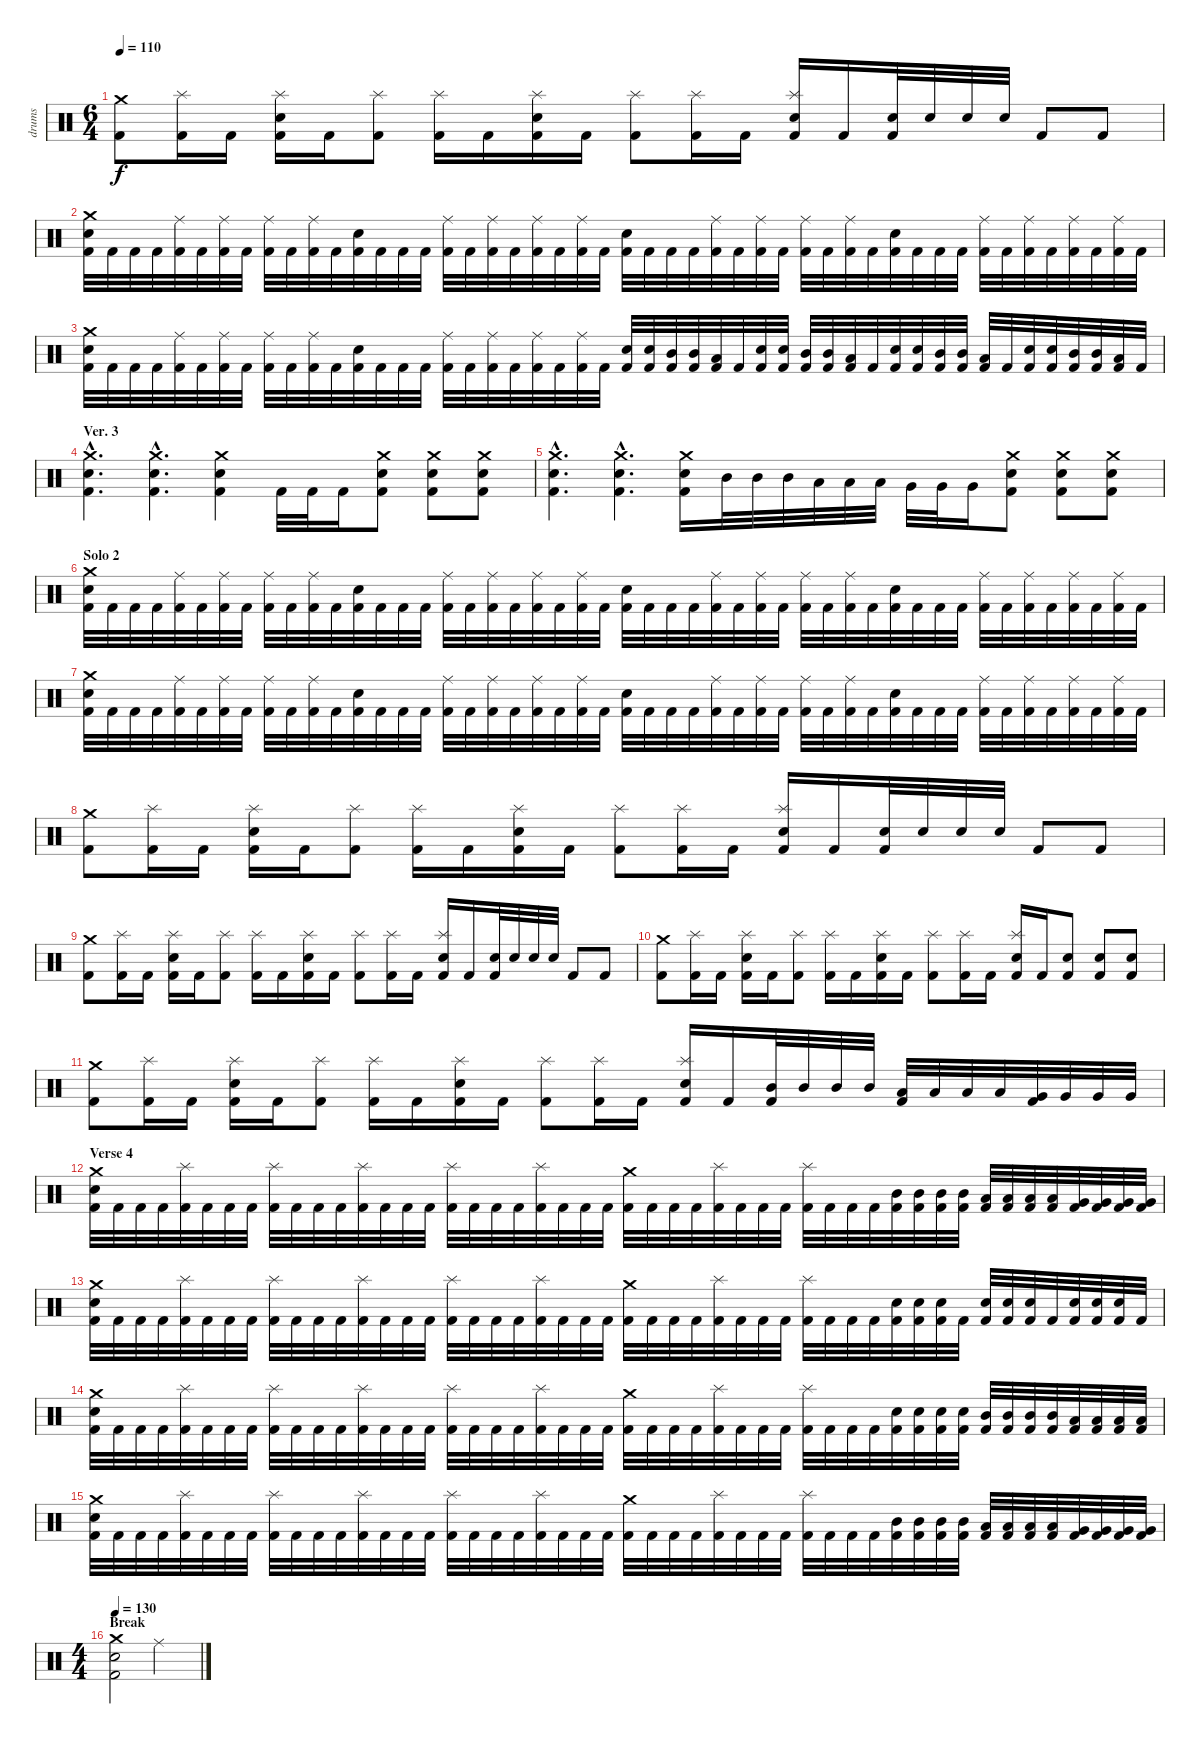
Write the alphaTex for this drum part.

\track ("drums" "drums") {instrument percussion}
\staff {score}
\articulation defaults
\ts (6 4)
\tempo 110
\clef neutral
\ks c
("Crash medium (hit)" "Kick (hit) 2").8{dy f} ("Splash (hit)" "Kick (hit) 2").16 "Kick (hit) 2".16 ("Splash (hit)" "Electric Snare (hit)" "Kick (hit) 2").16 "Kick (hit) 2".16 ("Splash (hit)" "Kick (hit) 2").8 ("Splash (hit)" "Kick (hit) 2").16 "Kick (hit) 2".16 ("Splash (hit)" "Electric Snare (hit)" "Kick (hit) 2").16 "Kick (hit) 2".16 ("Splash (hit)" "Kick (hit) 2").8 ("Splash (hit)" "Kick (hit) 2").16 "Kick (hit) 2".16 ("Splash (hit)" "Electric Snare (hit)" "Kick (hit) 2").16 "Kick (hit) 2".16 ("Electric Snare (hit)" "Kick (hit) 2").32 "Electric Snare (hit)".32 "Electric Snare (hit)".32 "Electric Snare (hit)".32 "Kick (hit) 2".8 "Kick (hit) 2".8 |
("Crash medium (hit)" "Electric Snare (hit)" "Kick (hit) 2").32 "Kick (hit) 2".32 "Kick (hit) 2".32 "Kick (hit) 2".32 ("Ride (middle)" "Kick (hit) 2").32 "Kick (hit) 2".32 ("Ride (middle)" "Kick (hit) 2").32 "Kick (hit) 2".32 ("Ride (middle)" "Kick (hit) 2").32 "Kick (hit) 2".32 ("Ride (middle)" "Kick (hit) 2").32 "Kick (hit) 2".32 ("Electric Snare (hit)" "Kick (hit) 2").32 "Kick (hit) 2".32 "Kick (hit) 2".32 "Kick (hit) 2".32 ("Ride (middle)" "Kick (hit) 2").32 "Kick (hit) 2".32 ("Ride (middle)" "Kick (hit) 2").32 "Kick (hit) 2".32 ("Ride (middle)" "Kick (hit) 2").32 "Kick (hit) 2".32 ("Ride (middle)" "Kick (hit) 2").32 "Kick (hit) 2".32 ("Electric Snare (hit)" "Kick (hit) 2").32 "Kick (hit) 2".32 "Kick (hit) 2".32 "Kick (hit) 2".32 ("Ride (middle)" "Kick (hit) 2").32 "Kick (hit) 2".32 ("Ride (middle)" "Kick (hit) 2").32 "Kick (hit) 2".32 ("Ride (middle)" "Kick (hit) 2").32 "Kick (hit) 2".32 ("Ride (middle)" "Kick (hit) 2").32 "Kick (hit) 2".32 ("Electric Snare (hit)" "Kick (hit) 2").32 "Kick (hit) 2".32 "Kick (hit) 2".32 "Kick (hit) 2".32 ("Ride (middle)" "Kick (hit) 2").32 "Kick (hit) 2".32 ("Ride (middle)" "Kick (hit) 2").32 "Kick (hit) 2".32 ("Ride (middle)" "Kick (hit) 2").32 "Kick (hit) 2".32 ("Ride (middle)" "Kick (hit) 2").32 "Kick (hit) 2".32 |
("Crash medium (hit)" "Electric Snare (hit)" "Kick (hit) 2").32 "Kick (hit) 2".32 "Kick (hit) 2".32 "Kick (hit) 2".32 ("Ride (middle)" "Kick (hit) 2").32 "Kick (hit) 2".32 ("Ride (middle)" "Kick (hit) 2").32 "Kick (hit) 2".32 ("Ride (middle)" "Kick (hit) 2").32 "Kick (hit) 2".32 ("Ride (middle)" "Kick (hit) 2").32 "Kick (hit) 2".32 ("Electric Snare (hit)" "Kick (hit) 2").32 "Kick (hit) 2".32 "Kick (hit) 2".32 "Kick (hit) 2".32 ("Ride (middle)" "Kick (hit) 2").32 "Kick (hit) 2".32 ("Ride (middle)" "Kick (hit) 2").32 "Kick (hit) 2".32 ("Ride (middle)" "Kick (hit) 2").32 "Kick (hit) 2".32 ("Ride (middle)" "Kick (hit) 2").32 "Kick (hit) 2".32 ("Electric Snare (hit)" "Kick (hit) 2").32 ("Electric Snare (hit)" "Kick (hit) 2").32 ("Mid Tom (hit)" "Kick (hit) 2").32 ("Mid Tom (hit)" "Kick (hit) 2").32 ("Low Tom (hit)" "Kick (hit) 2").32 "Kick (hit) 2".32 ("Electric Snare (hit)" "Kick (hit) 2").32 ("Electric Snare (hit)" "Kick (hit) 2").32 ("Mid Tom (hit)" "Kick (hit) 2").32 ("Mid Tom (hit)" "Kick (hit) 2").32 ("Low Tom (hit)" "Kick (hit) 2").32 "Kick (hit) 2".32 ("Electric Snare (hit)" "Kick (hit) 2").32 ("Electric Snare (hit)" "Kick (hit) 2").32 ("Mid Tom (hit)" "Kick (hit) 2").32 ("Mid Tom (hit)" "Kick (hit) 2").32 ("Low Tom (hit)" "Kick (hit) 2").32 "Kick (hit) 2".32 ("Electric Snare (hit)" "Kick (hit) 2").32 ("Electric Snare (hit)" "Kick (hit) 2").32 ("Mid Tom (hit)" "Kick (hit) 2").32 ("Mid Tom (hit)" "Kick (hit) 2").32 ("Low Tom (hit)" "Kick (hit) 2").32 "Kick (hit) 2".32 |
\section ("" "Ver. 3")
("Crash medium (hit)"{hac} "Electric Snare (hit)"{hac} "Kick (hit) 2"{hac}).4{d} ("Crash medium (hit)"{hac} "Electric Snare (hit)"{hac} "Kick (hit) 2"{hac}).4{d} ("Crash medium (hit)" "Electric Snare (hit)" "Kick (hit) 2").4 "Kick (hit) 2".32 "Kick (hit) 2".32 "Kick (hit) 2".16 ("Crash medium (hit)" "Electric Snare (hit)" "Kick (hit) 2").8 ("Crash medium (hit)" "Electric Snare (hit)" "Kick (hit) 2").8 ("Crash medium (hit)" "Electric Snare (hit)" "Kick (hit) 2").8 |
("Crash medium (hit)"{hac} "Electric Snare (hit)"{hac} "Kick (hit) 2"{hac}).4{d} ("Crash medium (hit)"{hac} "Electric Snare (hit)"{hac} "Kick (hit) 2"{hac}).4{d} ("Crash medium (hit)" "Electric Snare (hit)" "Kick (hit) 2").16 "Mid Tom (hit)".32 "Mid Tom (hit)".32 "Mid Tom (hit)".32 "Low Tom (hit)".32 "Low Tom (hit)".32 "Low Tom (hit)".32 "Very Low Tom (hit)".32 "Very Low Tom (hit)".32 "Very Low Tom (hit)".16 ("Crash medium (hit)" "Electric Snare (hit)" "Kick (hit) 2").8 ("Crash medium (hit)" "Electric Snare (hit)" "Kick (hit) 2").8 ("Crash medium (hit)" "Electric Snare (hit)" "Kick (hit) 2").8 |
\section ("" "Solo 2")
("Crash medium (hit)" "Electric Snare (hit)" "Kick (hit) 2").32 "Kick (hit) 2".32 "Kick (hit) 2".32 "Kick (hit) 2".32 ("Ride (middle)" "Kick (hit) 2").32 "Kick (hit) 2".32 ("Ride (middle)" "Kick (hit) 2").32 "Kick (hit) 2".32 ("Ride (middle)" "Kick (hit) 2").32 "Kick (hit) 2".32 ("Ride (middle)" "Kick (hit) 2").32 "Kick (hit) 2".32 ("Electric Snare (hit)" "Kick (hit) 2").32 "Kick (hit) 2".32 "Kick (hit) 2".32 "Kick (hit) 2".32 ("Ride (middle)" "Kick (hit) 2").32 "Kick (hit) 2".32 ("Ride (middle)" "Kick (hit) 2").32 "Kick (hit) 2".32 ("Ride (middle)" "Kick (hit) 2").32 "Kick (hit) 2".32 ("Ride (middle)" "Kick (hit) 2").32 "Kick (hit) 2".32 ("Electric Snare (hit)" "Kick (hit) 2").32 "Kick (hit) 2".32 "Kick (hit) 2".32 "Kick (hit) 2".32 ("Ride (middle)" "Kick (hit) 2").32 "Kick (hit) 2".32 ("Ride (middle)" "Kick (hit) 2").32 "Kick (hit) 2".32 ("Ride (middle)" "Kick (hit) 2").32 "Kick (hit) 2".32 ("Ride (middle)" "Kick (hit) 2").32 "Kick (hit) 2".32 ("Electric Snare (hit)" "Kick (hit) 2").32 "Kick (hit) 2".32 "Kick (hit) 2".32 "Kick (hit) 2".32 ("Ride (middle)" "Kick (hit) 2").32 "Kick (hit) 2".32 ("Ride (middle)" "Kick (hit) 2").32 "Kick (hit) 2".32 ("Ride (middle)" "Kick (hit) 2").32 "Kick (hit) 2".32 ("Ride (middle)" "Kick (hit) 2").32 "Kick (hit) 2".32 |
("Crash medium (hit)" "Electric Snare (hit)" "Kick (hit) 2").32 "Kick (hit) 2".32 "Kick (hit) 2".32 "Kick (hit) 2".32 ("Ride (middle)" "Kick (hit) 2").32 "Kick (hit) 2".32 ("Ride (middle)" "Kick (hit) 2").32 "Kick (hit) 2".32 ("Ride (middle)" "Kick (hit) 2").32 "Kick (hit) 2".32 ("Ride (middle)" "Kick (hit) 2").32 "Kick (hit) 2".32 ("Electric Snare (hit)" "Kick (hit) 2").32 "Kick (hit) 2".32 "Kick (hit) 2".32 "Kick (hit) 2".32 ("Ride (middle)" "Kick (hit) 2").32 "Kick (hit) 2".32 ("Ride (middle)" "Kick (hit) 2").32 "Kick (hit) 2".32 ("Ride (middle)" "Kick (hit) 2").32 "Kick (hit) 2".32 ("Ride (middle)" "Kick (hit) 2").32 "Kick (hit) 2".32 ("Electric Snare (hit)" "Kick (hit) 2").32 "Kick (hit) 2".32 "Kick (hit) 2".32 "Kick (hit) 2".32 ("Ride (middle)" "Kick (hit) 2").32 "Kick (hit) 2".32 ("Ride (middle)" "Kick (hit) 2").32 "Kick (hit) 2".32 ("Ride (middle)" "Kick (hit) 2").32 "Kick (hit) 2".32 ("Ride (middle)" "Kick (hit) 2").32 "Kick (hit) 2".32 ("Electric Snare (hit)" "Kick (hit) 2").32 "Kick (hit) 2".32 "Kick (hit) 2".32 "Kick (hit) 2".32 ("Ride (middle)" "Kick (hit) 2").32 "Kick (hit) 2".32 ("Ride (middle)" "Kick (hit) 2").32 "Kick (hit) 2".32 ("Ride (middle)" "Kick (hit) 2").32 "Kick (hit) 2".32 ("Ride (middle)" "Kick (hit) 2").32 "Kick (hit) 2".32 |
("Crash medium (hit)" "Kick (hit) 2").8 ("Splash (hit)" "Kick (hit) 2").16 "Kick (hit) 2".16 ("Splash (hit)" "Electric Snare (hit)" "Kick (hit) 2").16 "Kick (hit) 2".16 ("Splash (hit)" "Kick (hit) 2").8 ("Splash (hit)" "Kick (hit) 2").16 "Kick (hit) 2".16 ("Splash (hit)" "Electric Snare (hit)" "Kick (hit) 2").16 "Kick (hit) 2".16 ("Splash (hit)" "Kick (hit) 2").8 ("Splash (hit)" "Kick (hit) 2").16 "Kick (hit) 2".16 ("Splash (hit)" "Electric Snare (hit)" "Kick (hit) 2").16 "Kick (hit) 2".16 ("Electric Snare (hit)" "Kick (hit) 2").32 "Electric Snare (hit)".32 "Electric Snare (hit)".32 "Electric Snare (hit)".32 "Kick (hit) 2".8 "Kick (hit) 2".8 |
("Crash medium (hit)" "Kick (hit) 2").8 ("Splash (hit)" "Kick (hit) 2").16 "Kick (hit) 2".16 ("Splash (hit)" "Electric Snare (hit)" "Kick (hit) 2").16 "Kick (hit) 2".16 ("Splash (hit)" "Kick (hit) 2").8 ("Splash (hit)" "Kick (hit) 2").16 "Kick (hit) 2".16 ("Splash (hit)" "Electric Snare (hit)" "Kick (hit) 2").16 "Kick (hit) 2".16 ("Splash (hit)" "Kick (hit) 2").8 ("Splash (hit)" "Kick (hit) 2").16 "Kick (hit) 2".16 ("Splash (hit)" "Electric Snare (hit)" "Kick (hit) 2").16 "Kick (hit) 2".16 ("Electric Snare (hit)" "Kick (hit) 2").32 "Electric Snare (hit)".32 "Electric Snare (hit)".32 "Electric Snare (hit)".32 "Kick (hit) 2".8 "Kick (hit) 2".8 |
("Crash medium (hit)" "Kick (hit) 2").8 ("Splash (hit)" "Kick (hit) 2").16 "Kick (hit) 2".16 ("Splash (hit)" "Electric Snare (hit)" "Kick (hit) 2").16 "Kick (hit) 2".16 ("Splash (hit)" "Kick (hit) 2").8 ("Splash (hit)" "Kick (hit) 2").16 "Kick (hit) 2".16 ("Splash (hit)" "Electric Snare (hit)" "Kick (hit) 2").16 "Kick (hit) 2".16 ("Splash (hit)" "Kick (hit) 2").8 ("Splash (hit)" "Kick (hit) 2").16 "Kick (hit) 2".16 ("Splash (hit)" "Electric Snare (hit)" "Kick (hit) 2").16 "Kick (hit) 2".16 ("Electric Snare (hit)" "Kick (hit) 2").8 ("Electric Snare (hit)" "Kick (hit) 2").8 ("Electric Snare (hit)" "Kick (hit) 2").8 |
("Crash medium (hit)" "Kick (hit) 2").8 ("Splash (hit)" "Kick (hit) 2").16 "Kick (hit) 2".16 ("Splash (hit)" "Electric Snare (hit)" "Kick (hit) 2").16 "Kick (hit) 2".16 ("Splash (hit)" "Kick (hit) 2").8 ("Splash (hit)" "Kick (hit) 2").16 "Kick (hit) 2".16 ("Splash (hit)" "Electric Snare (hit)" "Kick (hit) 2").16 "Kick (hit) 2".16 ("Splash (hit)" "Kick (hit) 2").8 ("Splash (hit)" "Kick (hit) 2").16 "Kick (hit) 2".16 ("Splash (hit)" "Electric Snare (hit)" "Kick (hit) 2").16 "Kick (hit) 2".16 ("Mid Tom (hit)" "Kick (hit) 2").32 "Mid Tom (hit)".32 "Mid Tom (hit)".32 "Mid Tom (hit)".32 ("Low Tom (hit)" "Kick (hit) 2").32 "Low Tom (hit)".32 "Low Tom (hit)".32 "Low Tom (hit)".32 ("Very Low Tom (hit)" "Kick (hit) 2").32 "Very Low Tom (hit)".32 "Very Low Tom (hit)".32 "Very Low Tom (hit)".32 |
\section ("" "Verse 4")
("Crash medium (hit)" "Electric Snare (hit)" "Kick (hit) 2").32 "Kick (hit) 2".32 "Kick (hit) 2".32 "Kick (hit) 2".32 ("Splash (hit)" "Kick (hit) 2").32 "Kick (hit) 2".32 "Kick (hit) 2".32 "Kick (hit) 2".32 ("Splash (hit)" "Kick (hit) 2").32 "Kick (hit) 2".32 "Kick (hit) 2".32 "Kick (hit) 2".32 ("Splash (hit)" "Kick (hit) 2").32 "Kick (hit) 2".32 "Kick (hit) 2".32 "Kick (hit) 2".32 ("Splash (hit)" "Kick (hit) 2").32 "Kick (hit) 2".32 "Kick (hit) 2".32 "Kick (hit) 2".32 ("Splash (hit)" "Kick (hit) 2").32 "Kick (hit) 2".32 "Kick (hit) 2".32 "Kick (hit) 2".32 ("Crash medium (hit)" "Kick (hit) 2").32 "Kick (hit) 2".32 "Kick (hit) 2".32 "Kick (hit) 2".32 ("Splash (hit)" "Kick (hit) 2").32 "Kick (hit) 2".32 "Kick (hit) 2".32 "Kick (hit) 2".32 ("Splash (hit)" "Kick (hit) 2").32 "Kick (hit) 2".32 "Kick (hit) 2".32 "Kick (hit) 2".32 ("Mid Tom (hit)" "Kick (hit) 2").32 ("Mid Tom (hit)" "Kick (hit) 2").32 ("Mid Tom (hit)" "Kick (hit) 2").32 ("Mid Tom (hit)" "Kick (hit) 2").32 ("Low Tom (hit)" "Kick (hit) 2").32 ("Low Tom (hit)" "Kick (hit) 2").32 ("Low Tom (hit)" "Kick (hit) 2").32 ("Low Tom (hit)" "Kick (hit) 2").32 ("Very Low Tom (hit)" "Kick (hit) 2").32 ("Very Low Tom (hit)" "Kick (hit) 2").32 ("Very Low Tom (hit)" "Kick (hit) 2").32 ("Very Low Tom (hit)" "Kick (hit) 2").32 |
("Crash medium (hit)" "Electric Snare (hit)" "Kick (hit) 2").32 "Kick (hit) 2".32 "Kick (hit) 2".32 "Kick (hit) 2".32 ("Splash (hit)" "Kick (hit) 2").32 "Kick (hit) 2".32 "Kick (hit) 2".32 "Kick (hit) 2".32 ("Splash (hit)" "Kick (hit) 2").32 "Kick (hit) 2".32 "Kick (hit) 2".32 "Kick (hit) 2".32 ("Splash (hit)" "Kick (hit) 2").32 "Kick (hit) 2".32 "Kick (hit) 2".32 "Kick (hit) 2".32 ("Splash (hit)" "Kick (hit) 2").32 "Kick (hit) 2".32 "Kick (hit) 2".32 "Kick (hit) 2".32 ("Splash (hit)" "Kick (hit) 2").32 "Kick (hit) 2".32 "Kick (hit) 2".32 "Kick (hit) 2".32 ("Crash medium (hit)" "Kick (hit) 2").32 "Kick (hit) 2".32 "Kick (hit) 2".32 "Kick (hit) 2".32 ("Splash (hit)" "Kick (hit) 2").32 "Kick (hit) 2".32 "Kick (hit) 2".32 "Kick (hit) 2".32 ("Splash (hit)" "Kick (hit) 2").32 "Kick (hit) 2".32 "Kick (hit) 2".32 "Kick (hit) 2".32 ("Electric Snare (hit)" "Kick (hit) 2").32 ("Electric Snare (hit)" "Kick (hit) 2").32 ("Electric Snare (hit)" "Kick (hit) 2").32 "Kick (hit) 2".32 ("Electric Snare (hit)" "Kick (hit) 2").32 ("Electric Snare (hit)" "Kick (hit) 2").32 ("Electric Snare (hit)" "Kick (hit) 2").32 "Kick (hit) 2".32 ("Electric Snare (hit)" "Kick (hit) 2").32 ("Electric Snare (hit)" "Kick (hit) 2").32 ("Electric Snare (hit)" "Kick (hit) 2").32 "Kick (hit) 2".32 |
("Crash medium (hit)" "Electric Snare (hit)" "Kick (hit) 2").32 "Kick (hit) 2".32 "Kick (hit) 2".32 "Kick (hit) 2".32 ("Splash (hit)" "Kick (hit) 2").32 "Kick (hit) 2".32 "Kick (hit) 2".32 "Kick (hit) 2".32 ("Splash (hit)" "Kick (hit) 2").32 "Kick (hit) 2".32 "Kick (hit) 2".32 "Kick (hit) 2".32 ("Splash (hit)" "Kick (hit) 2").32 "Kick (hit) 2".32 "Kick (hit) 2".32 "Kick (hit) 2".32 ("Splash (hit)" "Kick (hit) 2").32 "Kick (hit) 2".32 "Kick (hit) 2".32 "Kick (hit) 2".32 ("Splash (hit)" "Kick (hit) 2").32 "Kick (hit) 2".32 "Kick (hit) 2".32 "Kick (hit) 2".32 ("Crash medium (hit)" "Kick (hit) 2").32 "Kick (hit) 2".32 "Kick (hit) 2".32 "Kick (hit) 2".32 ("Splash (hit)" "Kick (hit) 2").32 "Kick (hit) 2".32 "Kick (hit) 2".32 "Kick (hit) 2".32 ("Splash (hit)" "Kick (hit) 2").32 "Kick (hit) 2".32 "Kick (hit) 2".32 "Kick (hit) 2".32 ("Electric Snare (hit)" "Kick (hit) 2").32 ("Electric Snare (hit)" "Kick (hit) 2").32 ("Electric Snare (hit)" "Kick (hit) 2").32 ("Electric Snare (hit)" "Kick (hit) 2").32 ("Mid Tom (hit)" "Kick (hit) 2").32 ("Mid Tom (hit)" "Kick (hit) 2").32 ("Mid Tom (hit)" "Kick (hit) 2").32 ("Mid Tom (hit)" "Kick (hit) 2").32 ("Low Tom (hit)" "Kick (hit) 2").32 ("Low Tom (hit)" "Kick (hit) 2").32 ("Low Tom (hit)" "Kick (hit) 2").32 ("Low Tom (hit)" "Kick (hit) 2").32 |
("Crash medium (hit)" "Electric Snare (hit)" "Kick (hit) 2").32 "Kick (hit) 2".32 "Kick (hit) 2".32 "Kick (hit) 2".32 ("Splash (hit)" "Kick (hit) 2").32 "Kick (hit) 2".32 "Kick (hit) 2".32 "Kick (hit) 2".32 ("Splash (hit)" "Kick (hit) 2").32 "Kick (hit) 2".32 "Kick (hit) 2".32 "Kick (hit) 2".32 ("Splash (hit)" "Kick (hit) 2").32 "Kick (hit) 2".32 "Kick (hit) 2".32 "Kick (hit) 2".32 ("Splash (hit)" "Kick (hit) 2").32 "Kick (hit) 2".32 "Kick (hit) 2".32 "Kick (hit) 2".32 ("Splash (hit)" "Kick (hit) 2").32 "Kick (hit) 2".32 "Kick (hit) 2".32 "Kick (hit) 2".32 ("Crash medium (hit)" "Kick (hit) 2").32 "Kick (hit) 2".32 "Kick (hit) 2".32 "Kick (hit) 2".32 ("Splash (hit)" "Kick (hit) 2").32 "Kick (hit) 2".32 "Kick (hit) 2".32 "Kick (hit) 2".32 ("Splash (hit)" "Kick (hit) 2").32 "Kick (hit) 2".32 "Kick (hit) 2".32 "Kick (hit) 2".32 ("Mid Tom (hit)" "Kick (hit) 2").32 ("Mid Tom (hit)" "Kick (hit) 2").32 ("Mid Tom (hit)" "Kick (hit) 2").32 ("Mid Tom (hit)" "Kick (hit) 2").32 ("Low Tom (hit)" "Kick (hit) 2").32 ("Low Tom (hit)" "Kick (hit) 2").32 ("Low Tom (hit)" "Kick (hit) 2").32 ("Low Tom (hit)" "Kick (hit) 2").32 ("Very Low Tom (hit)" "Kick (hit) 2").32 ("Very Low Tom (hit)" "Kick (hit) 2").32 ("Very Low Tom (hit)" "Kick (hit) 2").32 ("Very Low Tom (hit)" "Kick (hit) 2").32 |
\ts (4 4)
\section ("" "Break")
\tempo 130
("Crash medium (hit)" "Electric Snare (hit)" "Kick (hit) 2").2 "Ride (middle)".2
